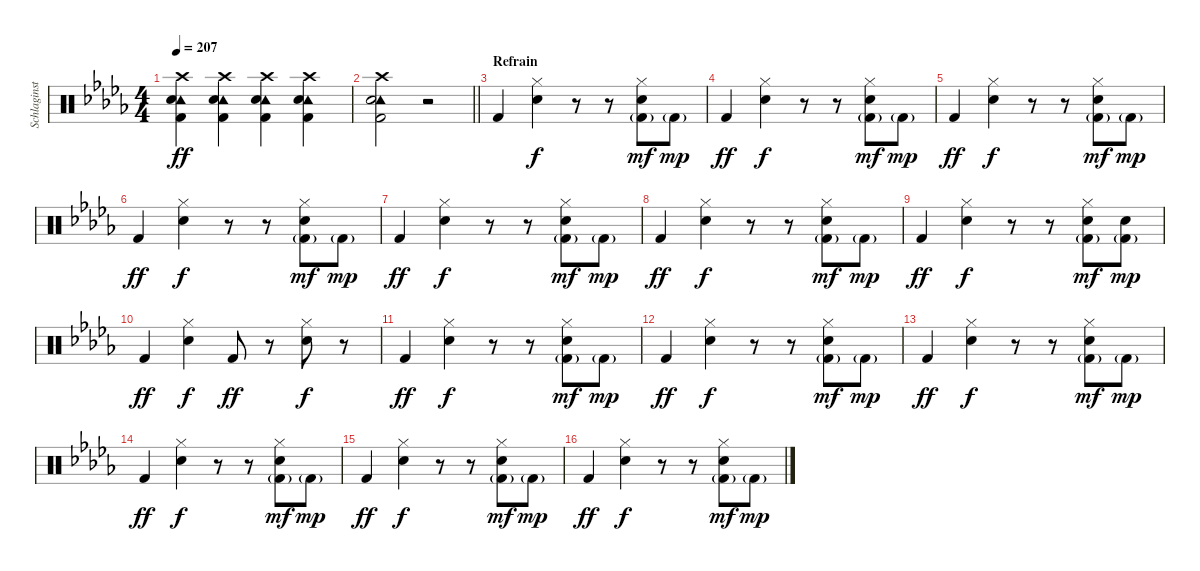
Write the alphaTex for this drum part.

\track ("Schlaginstrumente - Auswahl" "Schlaginst") {instrument percussion}
\staff {score}
\articulation defaults
\ts (4 4)
\tempo 207
\clef neutral
\ks bbminor
("Crash high (hit)" "Tambourine (hit)" "Snare (hit) 2" "Kick (hit) 2").4{dy ff} ("Crash high (hit)" "Tambourine (hit)" "Snare (hit) 2" "Kick (hit) 2").4 ("Crash high (hit)" "Tambourine (hit)" "Snare (hit) 2" "Kick (hit) 2").4 ("Crash high (hit)" "Tambourine (hit)" "Snare (hit) 2" "Kick (hit) 2").4 |
\barLineRight lightlight
("Crash high (hit)" "Tambourine (hit)" "Snare (hit) 2" "Kick (hit) 2").2 r.2 |
\section ("" "Refrain")
"Kick (hit) 2".4 ("Hi-Hat (closed)" "Snare (hit) 2").4{dy f} r.8 r.8 ("Hi-Hat (closed)" "Snare (hit) 2" "Kick (hit) 2"{g}).8{dy mf} "Kick (hit) 2"{g}.8{dy mp} |
"Kick (hit) 2".4{dy ff} ("Hi-Hat (closed)" "Snare (hit) 2").4{dy f} r.8 r.8 ("Hi-Hat (closed)" "Snare (hit) 2" "Kick (hit) 2"{g}).8{dy mf} "Kick (hit) 2"{g}.8{dy mp} |
"Kick (hit) 2".4{dy ff} ("Hi-Hat (closed)" "Snare (hit) 2").4{dy f} r.8 r.8 ("Hi-Hat (closed)" "Snare (hit) 2" "Kick (hit) 2"{g}).8{dy mf} "Kick (hit) 2"{g}.8{dy mp} |
"Kick (hit) 2".4{dy ff} ("Hi-Hat (closed)" "Snare (hit) 2").4{dy f} r.8 r.8 ("Hi-Hat (closed)" "Snare (hit) 2" "Kick (hit) 2"{g}).8{dy mf} "Kick (hit) 2"{g}.8{dy mp} |
"Kick (hit) 2".4{dy ff} ("Hi-Hat (closed)" "Snare (hit) 2").4{dy f} r.8 r.8 ("Hi-Hat (closed)" "Snare (hit) 2" "Kick (hit) 2"{g}).8{dy mf} "Kick (hit) 2"{g}.8{dy mp} |
"Kick (hit) 2".4{dy ff} ("Hi-Hat (closed)" "Snare (hit) 2").4{dy f} r.8 r.8 ("Hi-Hat (closed)" "Snare (hit) 2" "Kick (hit) 2"{g}).8{dy mf} "Kick (hit) 2"{g}.8{dy mp} |
"Kick (hit) 2".4{dy ff} ("Hi-Hat (closed)" "Snare (hit) 2").4{dy f} r.8 r.8 ("Hi-Hat (closed)" "Snare (hit) 2" "Kick (hit) 2"{g}).8{dy mf} ("Snare (hit) 2" "Kick (hit) 2"{g}).8{dy mp} |
"Kick (hit) 2".4{dy ff} ("Hi-Hat (closed)" "Snare (hit) 2").4{dy f} "Kick (hit) 2".8{dy ff} r.8 ("Hi-Hat (closed)" "Snare (hit) 2").8{dy f} r.8 |
"Kick (hit) 2".4{dy ff} ("Hi-Hat (closed)" "Snare (hit) 2").4{dy f} r.8 r.8 ("Hi-Hat (closed)" "Snare (hit) 2" "Kick (hit) 2"{g}).8{dy mf} "Kick (hit) 2"{g}.8{dy mp} |
"Kick (hit) 2".4{dy ff} ("Hi-Hat (closed)" "Snare (hit) 2").4{dy f} r.8 r.8 ("Hi-Hat (closed)" "Snare (hit) 2" "Kick (hit) 2"{g}).8{dy mf} "Kick (hit) 2"{g}.8{dy mp} |
"Kick (hit) 2".4{dy ff} ("Hi-Hat (closed)" "Snare (hit) 2").4{dy f} r.8 r.8 ("Hi-Hat (closed)" "Snare (hit) 2" "Kick (hit) 2"{g}).8{dy mf} "Kick (hit) 2"{g}.8{dy mp} |
"Kick (hit) 2".4{dy ff} ("Hi-Hat (closed)" "Snare (hit) 2").4{dy f} r.8 r.8 ("Hi-Hat (closed)" "Snare (hit) 2" "Kick (hit) 2"{g}).8{dy mf} "Kick (hit) 2"{g}.8{dy mp} |
"Kick (hit) 2".4{dy ff} ("Hi-Hat (closed)" "Snare (hit) 2").4{dy f} r.8 r.8 ("Hi-Hat (closed)" "Snare (hit) 2" "Kick (hit) 2"{g}).8{dy mf} "Kick (hit) 2"{g}.8{dy mp} |
"Kick (hit) 2".4{dy ff} ("Hi-Hat (closed)" "Snare (hit) 2").4{dy f} r.8 r.8 ("Hi-Hat (closed)" "Snare (hit) 2" "Kick (hit) 2"{g}).8{dy mf} "Kick (hit) 2"{g}.8{dy mp}
